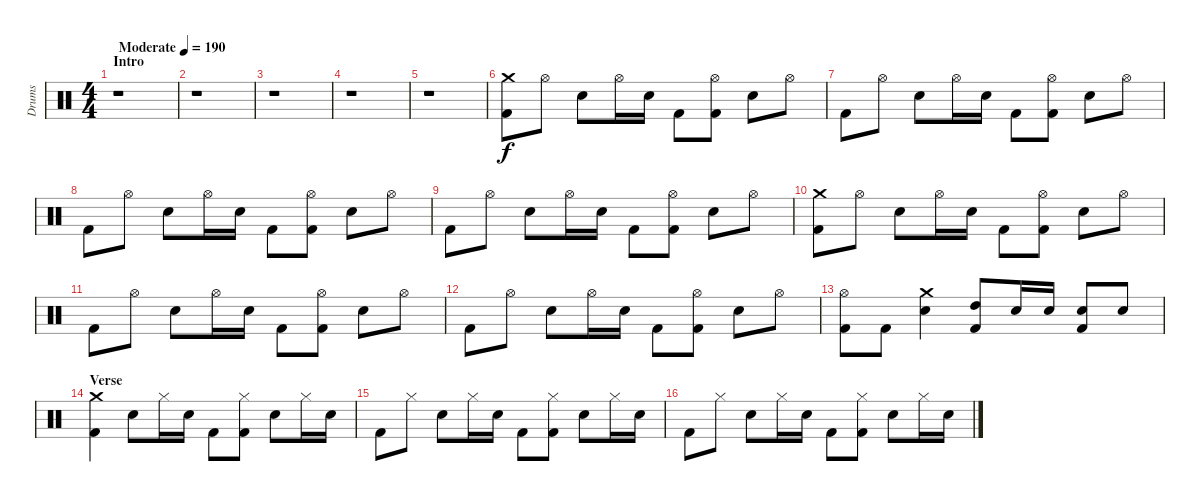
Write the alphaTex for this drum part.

\track ("Drums" "Drums") {instrument percussion}
\staff {score}
\articulation defaults
\ts (4 4)
\section ("" "Intro")
\tempo (190 "Moderate")
\clef neutral
\ks c
r.1{dy f} |
r.1 |
r.1 |
r.1 |
r.1 |
("Crash medium (hit)" "Kick (hit) 2").8 "Hi-Hat (open)".8 "Snare (hit) 2".8 "Hi-Hat (open)".16 "Snare (hit) 2".16 "Kick (hit) 2".8 ("Hi-Hat (open)" "Kick (hit) 2").8 "Snare (hit) 2".8 "Hi-Hat (open)".8 |
"Kick (hit) 2".8 "Hi-Hat (open)".8 "Snare (hit) 2".8 "Hi-Hat (open)".16 "Snare (hit) 2".16 "Kick (hit) 2".8 ("Hi-Hat (open)" "Kick (hit) 2").8 "Snare (hit) 2".8 "Hi-Hat (open)".8 |
"Kick (hit) 2".8 "Hi-Hat (open)".8 "Snare (hit) 2".8 "Hi-Hat (open)".16 "Snare (hit) 2".16 "Kick (hit) 2".8 ("Hi-Hat (open)" "Kick (hit) 2").8 "Snare (hit) 2".8 "Hi-Hat (open)".8 |
"Kick (hit) 2".8 "Hi-Hat (open)".8 "Snare (hit) 2".8 "Hi-Hat (open)".16 "Snare (hit) 2".16 "Kick (hit) 2".8 ("Hi-Hat (open)" "Kick (hit) 2").8 "Snare (hit) 2".8 "Hi-Hat (open)".8 |
("Crash medium (hit)" "Kick (hit) 2").8 "Hi-Hat (open)".8 "Snare (hit) 2".8 "Hi-Hat (open)".16 "Snare (hit) 2".16 "Kick (hit) 2".8 ("Hi-Hat (open)" "Kick (hit) 2").8 "Snare (hit) 2".8 "Hi-Hat (open)".8 |
"Kick (hit) 2".8 "Hi-Hat (open)".8 "Snare (hit) 2".8 "Hi-Hat (open)".16 "Snare (hit) 2".16 "Kick (hit) 2".8 ("Hi-Hat (open)" "Kick (hit) 2").8 "Snare (hit) 2".8 "Hi-Hat (open)".8 |
"Kick (hit) 2".8 "Hi-Hat (open)".8 "Snare (hit) 2".8 "Hi-Hat (open)".16 "Snare (hit) 2".16 "Kick (hit) 2".8 ("Hi-Hat (open)" "Kick (hit) 2").8 "Snare (hit) 2".8 "Hi-Hat (open)".8 |
("Hi-Hat (open)" "Kick (hit) 2").8 "Kick (hit) 2".8 ("Crash medium (hit)" "Snare (hit) 2").4 ("High Tom (hit)" "Kick (hit) 2").8 "Snare (hit) 2".16 "Snare (hit) 2".16 ("Snare (hit) 2" "Kick (hit) 2").8 "Snare (hit) 2".8 |
\section ("" "Verse")
("Crash medium (hit)" "Kick (hit) 2").4 "Snare (hit) 2".8 "Hi-Hat (closed)".16 "Snare (hit) 2".16 "Kick (hit) 2".8 ("Hi-Hat (closed)" "Kick (hit) 2").8 "Snare (hit) 2".8 "Hi-Hat (closed)".16 "Snare (hit) 2".16 |
"Kick (hit) 2".8 "Hi-Hat (closed)".8 "Snare (hit) 2".8 "Hi-Hat (closed)".16 "Snare (hit) 2".16 "Kick (hit) 2".8 ("Hi-Hat (closed)" "Kick (hit) 2").8 "Snare (hit) 2".8 "Hi-Hat (closed)".16 "Snare (hit) 2".16 |
"Kick (hit) 2".8 "Hi-Hat (closed)".8 "Snare (hit) 2".8 "Hi-Hat (closed)".16 "Snare (hit) 2".16 "Kick (hit) 2".8 ("Hi-Hat (closed)" "Kick (hit) 2").8 "Snare (hit) 2".8 "Hi-Hat (closed)".16 "Snare (hit) 2".16
